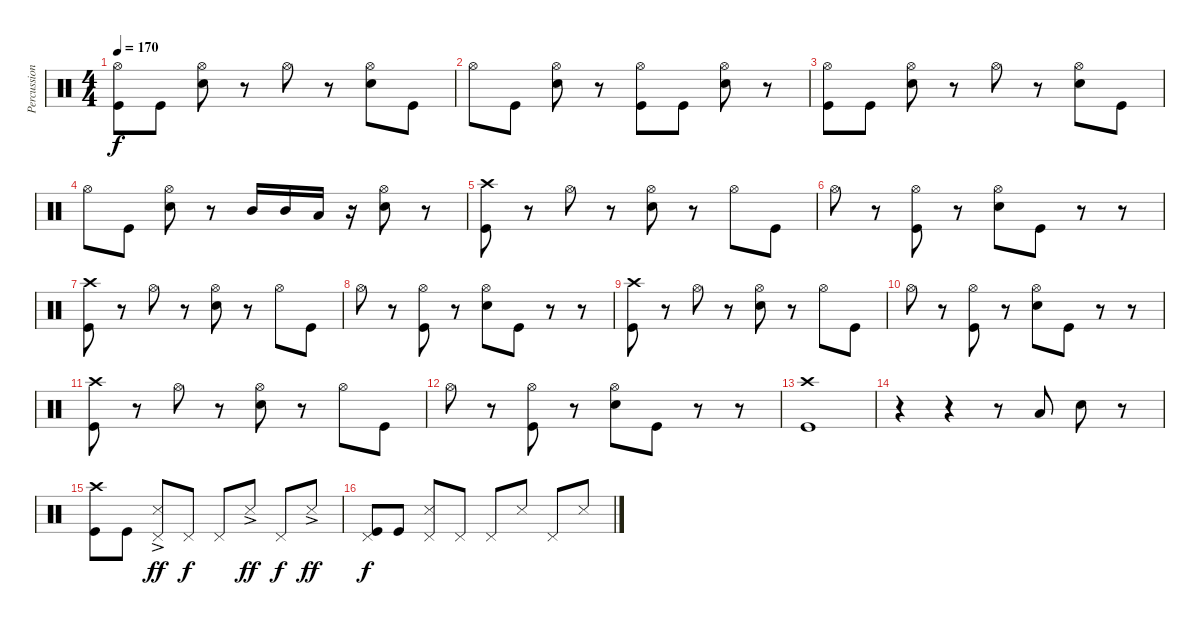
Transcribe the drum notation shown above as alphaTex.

\track ("Percussion" "Percussion") {instrument percussion}
\staff {score}
\articulation defaults
\ts (4 4)
\tempo 170
\clef neutral
\ks c
("Hi-Hat (open)" "Kick (hit)").8{dy f} "Kick (hit)".8 ("Hi-Hat (open)" "Snare (hit) 2").8 r.8 "Hi-Hat (open)".8 r.8 ("Hi-Hat (open)" "Snare (hit) 2").8 "Kick (hit)".8 |
"Hi-Hat (open)".8 "Kick (hit)".8 ("Hi-Hat (open)" "Snare (hit) 2").8 r.8 ("Hi-Hat (open)" "Kick (hit)").8 "Kick (hit)".8 ("Hi-Hat (open)" "Snare (hit) 2").8 r.8 |
("Hi-Hat (open)" "Kick (hit)").8 "Kick (hit)".8 ("Hi-Hat (open)" "Snare (hit) 2").8 r.8 "Hi-Hat (open)".8 r.8 ("Hi-Hat (open)" "Snare (hit) 2").8 "Kick (hit)".8 |
"Hi-Hat (open)".8 "Kick (hit)".8 ("Hi-Hat (open)" "Snare (hit) 2").8 r.8 "Mid Tom (hit)".16 "Mid Tom (hit)".16 "Low Tom (hit)".16 r.16 ("Hi-Hat (open)" "Snare (hit) 2").8 r.8 |
("Crash high (hit)" "Kick (hit)").8 r.8 "Hi-Hat (open)".8 r.8 ("Hi-Hat (open)" "Snare (hit) 2").8 r.8 "Hi-Hat (open)".8 "Kick (hit)".8 |
"Hi-Hat (open)".8 r.8 ("Hi-Hat (open)" "Kick (hit)").8 r.8 ("Hi-Hat (open)" "Snare (hit) 2").8 "Kick (hit)".8 r.8 r.8 |
("Crash high (hit)" "Kick (hit)").8 r.8 "Hi-Hat (open)".8 r.8 ("Hi-Hat (open)" "Snare (hit) 2").8 r.8 "Hi-Hat (open)".8 "Kick (hit)".8 |
"Hi-Hat (open)".8 r.8 ("Hi-Hat (open)" "Kick (hit)").8 r.8 ("Hi-Hat (open)" "Snare (hit) 2").8 "Kick (hit)".8 r.8 r.8 |
("Crash high (hit)" "Kick (hit)").8 r.8 "Hi-Hat (open)".8 r.8 ("Hi-Hat (open)" "Snare (hit) 2").8 r.8 "Hi-Hat (open)".8 "Kick (hit)".8 |
"Hi-Hat (open)".8 r.8 ("Hi-Hat (open)" "Kick (hit)").8 r.8 ("Hi-Hat (open)" "Snare (hit) 2").8 "Kick (hit)".8 r.8 r.8 |
("Crash high (hit)" "Kick (hit)").8 r.8 "Hi-Hat (open)".8 r.8 ("Hi-Hat (open)" "Snare (hit) 2").8 r.8 "Hi-Hat (open)".8 "Kick (hit)".8 |
"Hi-Hat (open)".8 r.8 ("Hi-Hat (open)" "Kick (hit)").8 r.8 ("Hi-Hat (open)" "Snare (hit) 2").8 "Kick (hit)".8 r.8 r.8 |
("Crash high (hit)" "Kick (hit)").1 |
r.4 r.4 r.8 "Low Tom (hit)".8 "Snare (hit) 2".8 r.8 |
("Crash high (hit)" "Kick (hit)").8 "Kick (hit)".8 ("Pedal Hi-Hat (hit)" "Snare (side stick) 3"{ac}).8{dy ff} "Pedal Hi-Hat (hit)".8{dy f} "Pedal Hi-Hat (hit)".8 "Snare (side stick) 3"{ac}.8{dy ff} "Pedal Hi-Hat (hit)".8{dy f} "Snare (side stick) 3"{ac}.8{dy ff} |
("Pedal Hi-Hat (hit)" "Kick (hit)").8{dy f} "Kick (hit)".8 ("Pedal Hi-Hat (hit)" "Snare (side stick) 3").8 "Pedal Hi-Hat (hit)".8 "Pedal Hi-Hat (hit)".8 "Snare (side stick) 3".8 "Pedal Hi-Hat (hit)".8 "Snare (side stick) 3".8
